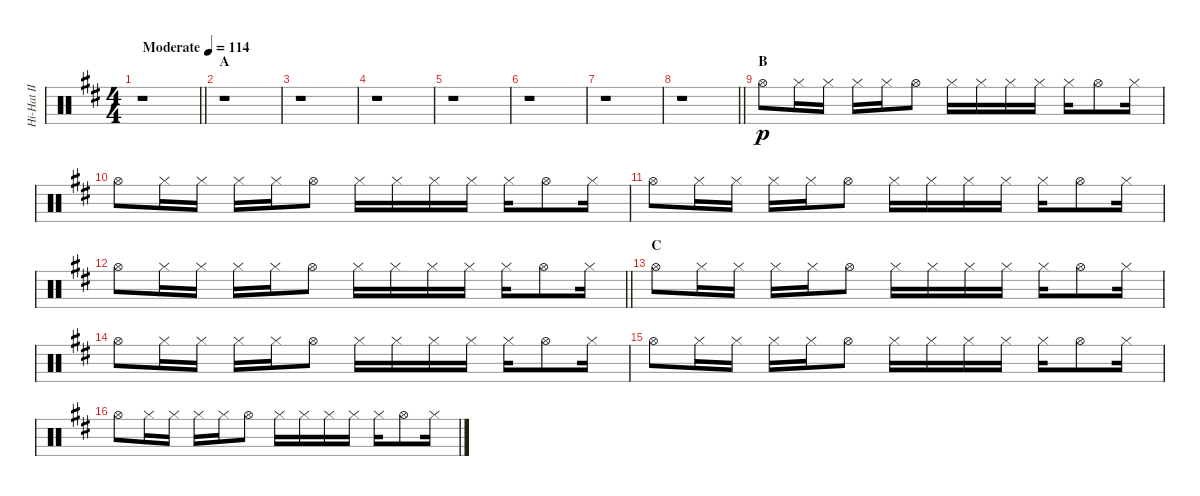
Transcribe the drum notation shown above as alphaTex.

\track ("Hi-Hat II" "Hi-Hat II") {instrument percussion}
\staff {score}
\articulation defaults
\ts (4 4)
\tempo (114 "Moderate")
\clef neutral
\barLineRight lightlight
\ks d
r.1{dy p} |
\section ("" "A")
r.1 |
r.1 |
r.1 |
r.1 |
r.1 |
r.1 |
\barLineRight lightlight
r.1 |
\section ("" "B")
"Hi-Hat (open)".8 "Hi-Hat (closed)".16 "Hi-Hat (closed)".16 "Hi-Hat (closed)".16 "Hi-Hat (closed)".16 "Hi-Hat (open)".8 "Hi-Hat (closed)".16 "Hi-Hat (closed)".16 "Hi-Hat (closed)".16 "Hi-Hat (closed)".16 "Hi-Hat (closed)".16 "Hi-Hat (open)".8 "Hi-Hat (closed)".16 |
"Hi-Hat (open)".8 "Hi-Hat (closed)".16 "Hi-Hat (closed)".16 "Hi-Hat (closed)".16 "Hi-Hat (closed)".16 "Hi-Hat (open)".8 "Hi-Hat (closed)".16 "Hi-Hat (closed)".16 "Hi-Hat (closed)".16 "Hi-Hat (closed)".16 "Hi-Hat (closed)".16 "Hi-Hat (open)".8 "Hi-Hat (closed)".16 |
"Hi-Hat (open)".8 "Hi-Hat (closed)".16 "Hi-Hat (closed)".16 "Hi-Hat (closed)".16 "Hi-Hat (closed)".16 "Hi-Hat (open)".8 "Hi-Hat (closed)".16 "Hi-Hat (closed)".16 "Hi-Hat (closed)".16 "Hi-Hat (closed)".16 "Hi-Hat (closed)".16 "Hi-Hat (open)".8 "Hi-Hat (closed)".16 |
\barLineRight lightlight "Hi-Hat (open)".8 "Hi-Hat (closed)".16 "Hi-Hat (closed)".16 "Hi-Hat (closed)".16 "Hi-Hat (closed)".16 "Hi-Hat (open)".8 "Hi-Hat (closed)".16 "Hi-Hat (closed)".16 "Hi-Hat (closed)".16 "Hi-Hat (closed)".16 "Hi-Hat (closed)".16 "Hi-Hat (open)".8 "Hi-Hat (closed)".16
|
\section ("" "C")
"Hi-Hat (open)".8 "Hi-Hat (closed)".16 "Hi-Hat (closed)".16 "Hi-Hat (closed)".16 "Hi-Hat (closed)".16 "Hi-Hat (open)".8 "Hi-Hat (closed)".16 "Hi-Hat (closed)".16 "Hi-Hat (closed)".16 "Hi-Hat (closed)".16 "Hi-Hat (closed)".16 "Hi-Hat (open)".8 "Hi-Hat (closed)".16 |
"Hi-Hat (open)".8 "Hi-Hat (closed)".16 "Hi-Hat (closed)".16 "Hi-Hat (closed)".16 "Hi-Hat (closed)".16 "Hi-Hat (open)".8 "Hi-Hat (closed)".16 "Hi-Hat (closed)".16 "Hi-Hat (closed)".16 "Hi-Hat (closed)".16 "Hi-Hat (closed)".16 "Hi-Hat (open)".8 "Hi-Hat (closed)".16 |
"Hi-Hat (open)".8 "Hi-Hat (closed)".16 "Hi-Hat (closed)".16 "Hi-Hat (closed)".16 "Hi-Hat (closed)".16 "Hi-Hat (open)".8 "Hi-Hat (closed)".16 "Hi-Hat (closed)".16 "Hi-Hat (closed)".16 "Hi-Hat (closed)".16 "Hi-Hat (closed)".16 "Hi-Hat (open)".8 "Hi-Hat (closed)".16 |
"Hi-Hat (open)".8 "Hi-Hat (closed)".16 "Hi-Hat (closed)".16 "Hi-Hat (closed)".16 "Hi-Hat (closed)".16 "Hi-Hat (open)".8 "Hi-Hat (closed)".16 "Hi-Hat (closed)".16 "Hi-Hat (closed)".16 "Hi-Hat (closed)".16 "Hi-Hat (closed)".16 "Hi-Hat (open)".8 "Hi-Hat (closed)".16
